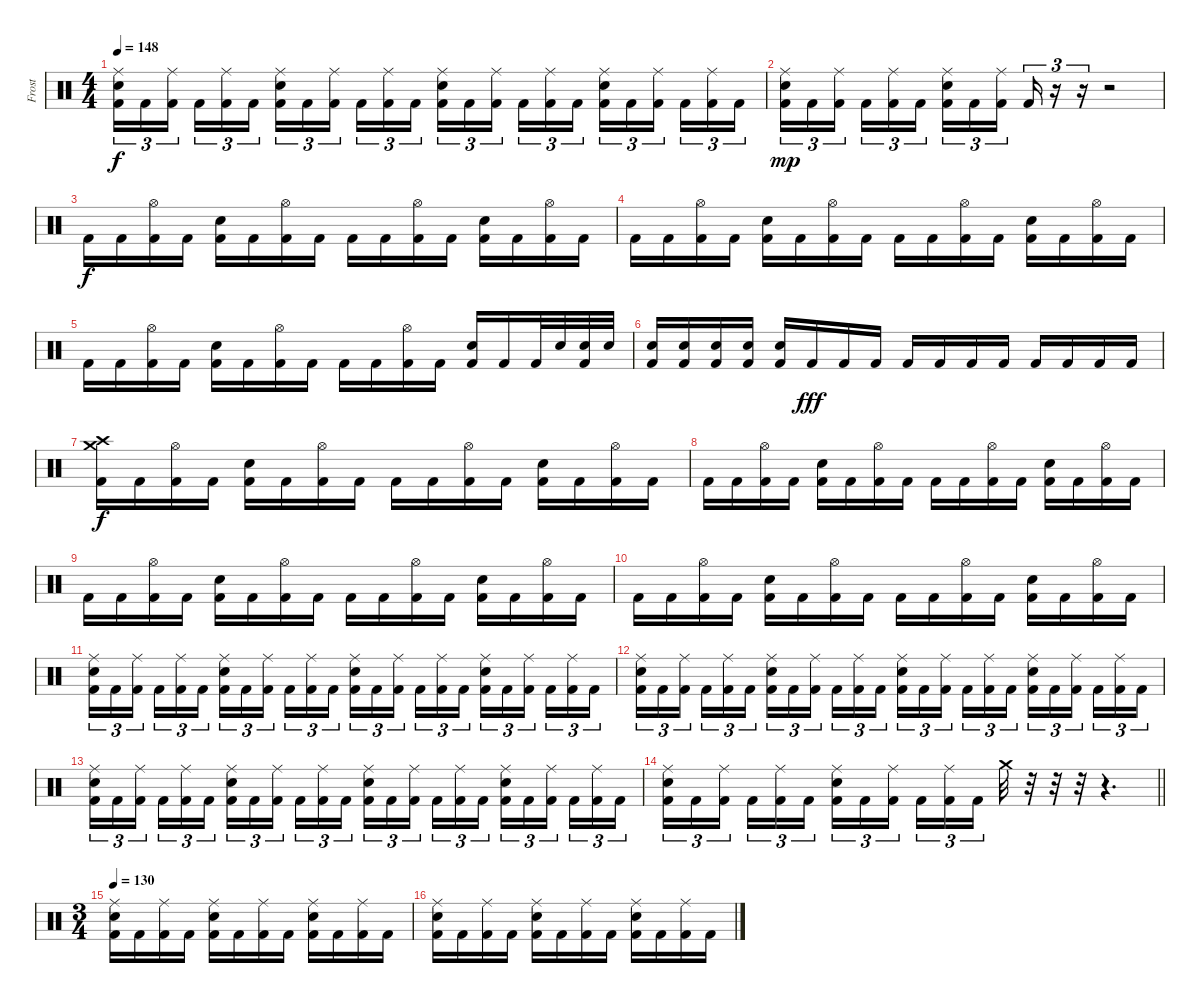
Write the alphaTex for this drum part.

\track ("Frost" "Frost") {instrument percussion}
\staff {score}
\articulation defaults
\ts (4 4)
\tempo 148
\clef neutral
\ks c
("Kick (hit) 2" "Ride (middle)" "Snare (hit) 2").16{tu (3 2) dy f} "Kick (hit) 2".16{tu (3 2)} ("Kick (hit) 2" "Ride (middle)").16{tu (3 2)} "Kick (hit) 2".16{tu (3 2)} ("Kick (hit) 2" "Ride (middle)").16{tu (3 2)} "Kick (hit) 2".16{tu (3 2)} ("Kick (hit) 2" "Ride (middle)" "Snare (hit) 2").16{tu (3 2)} "Kick (hit) 2".16{tu (3 2)} ("Kick (hit) 2" "Ride (middle)").16{tu (3 2)} "Kick (hit) 2".16{tu (3 2)} ("Kick (hit) 2" "Ride (middle)").16{tu (3 2)} "Kick (hit) 2".16{tu (3 2)} ("Kick (hit) 2" "Ride (middle)" "Snare (hit) 2").16{tu (3 2)} "Kick (hit) 2".16{tu (3 2)} ("Kick (hit) 2" "Ride (middle)").16{tu (3 2)} "Kick (hit) 2".16{tu (3 2)} ("Kick (hit) 2" "Ride (middle)").16{tu (3 2)} "Kick (hit) 2".16{tu (3 2)} ("Kick (hit) 2" "Ride (middle)" "Snare (hit) 2").16{tu (3 2)} "Kick (hit) 2".16{tu (3 2)} ("Kick (hit) 2" "Ride (middle)").16{tu (3 2)} "Kick (hit) 2".16{tu (3 2)} ("Kick (hit) 2" "Ride (middle)").16{tu (3 2)} "Kick (hit) 2".16{tu (3 2)} |
("Kick (hit) 2" "Ride (middle)" "Snare (hit) 2").16{tu (3 2) dy mp} "Kick (hit) 2".16{tu (3 2)} ("Kick (hit) 2" "Ride (middle)").16{tu (3 2)} "Kick (hit) 2".16{tu (3 2)} ("Kick (hit) 2" "Ride (middle)").16{tu (3 2)} "Kick (hit) 2".16{tu (3 2)} ("Kick (hit) 2" "Ride (middle)" "Snare (hit) 2").16{tu (3 2)} "Kick (hit) 2".16{tu (3 2)} ("Kick (hit) 2" "Ride (middle)").16{tu (3 2)} "Kick (hit) 2".16{tu (3 2)} r.16{tu (3 2)} r.16{tu (3 2)} r.2 |
"Kick (hit) 2".16{dy f} "Kick (hit) 2".16 ("Kick (hit) 2" "Hi-Hat (open)").16 "Kick (hit) 2".16 ("Kick (hit) 2" "Snare (hit) 2").16 "Kick (hit) 2".16 ("Kick (hit) 2" "Hi-Hat (open)").16 "Kick (hit) 2".16 "Kick (hit) 2".16 "Kick (hit) 2".16 ("Kick (hit) 2" "Hi-Hat (open)").16 "Kick (hit) 2".16 ("Kick (hit) 2" "Snare (hit) 2").16 "Kick (hit) 2".16 ("Kick (hit) 2" "Hi-Hat (open)").16 "Kick (hit) 2".16 |
"Kick (hit) 2".16 "Kick (hit) 2".16 ("Kick (hit) 2" "Hi-Hat (open)").16 "Kick (hit) 2".16 ("Kick (hit) 2" "Snare (hit) 2").16 "Kick (hit) 2".16 ("Kick (hit) 2" "Hi-Hat (open)").16 "Kick (hit) 2".16 "Kick (hit) 2".16 "Kick (hit) 2".16 ("Kick (hit) 2" "Hi-Hat (open)").16 "Kick (hit) 2".16 ("Kick (hit) 2" "Snare (hit) 2").16 "Kick (hit) 2".16 ("Kick (hit) 2" "Hi-Hat (open)").16 "Kick (hit) 2".16 |
"Kick (hit) 2".16 "Kick (hit) 2".16 ("Kick (hit) 2" "Hi-Hat (open)").16 "Kick (hit) 2".16 ("Kick (hit) 2" "Snare (hit) 2").16 "Kick (hit) 2".16 ("Kick (hit) 2" "Hi-Hat (open)").16 "Kick (hit) 2".16 "Kick (hit) 2".16 "Kick (hit) 2".16 ("Kick (hit) 2" "Hi-Hat (open)").16 "Kick (hit) 2".16 ("Kick (hit) 2" "Snare (hit) 2").16 "Kick (hit) 2".16 "Kick (hit) 2".32 "Snare (hit) 2".32 ("Kick (hit) 2" "Snare (hit) 2").32 "Snare (hit) 2".32 |
("Kick (hit) 2" "Snare (hit) 2").16 ("Kick (hit) 2" "Snare (hit) 2").16 ("Kick (hit) 2" "Snare (hit) 2").16 ("Kick (hit) 2" "Snare (hit) 2").16 ("Kick (hit) 2" "Snare (hit) 2").16 "Kick (hit) 2".16{dy fff} "Kick (hit) 2".16 "Kick (hit) 2".16 "Kick (hit) 2".16 "Kick (hit) 2".16 "Kick (hit) 2".16 "Kick (hit) 2".16 "Kick (hit) 2".16 "Kick (hit) 2".16 "Kick (hit) 2".16 "Kick (hit) 2".16 |
("Kick (hit) 2" "Crash medium (hit)" "Crash high (hit)").16{dy f} "Kick (hit) 2".16 ("Kick (hit) 2" "Hi-Hat (open)").16 "Kick (hit) 2".16 ("Kick (hit) 2" "Snare (hit) 2").16 "Kick (hit) 2".16 ("Kick (hit) 2" "Hi-Hat (open)").16 "Kick (hit) 2".16 "Kick (hit) 2".16 "Kick (hit) 2".16 ("Kick (hit) 2" "Hi-Hat (open)").16 "Kick (hit) 2".16 ("Kick (hit) 2" "Snare (hit) 2").16 "Kick (hit) 2".16 ("Kick (hit) 2" "Hi-Hat (open)").16 "Kick (hit) 2".16 |
"Kick (hit) 2".16 "Kick (hit) 2".16 ("Kick (hit) 2" "Hi-Hat (open)").16 "Kick (hit) 2".16 ("Kick (hit) 2" "Snare (hit) 2").16 "Kick (hit) 2".16 ("Kick (hit) 2" "Hi-Hat (open)").16 "Kick (hit) 2".16 "Kick (hit) 2".16 "Kick (hit) 2".16 ("Kick (hit) 2" "Hi-Hat (open)").16 "Kick (hit) 2".16 ("Kick (hit) 2" "Snare (hit) 2").16 "Kick (hit) 2".16 ("Kick (hit) 2" "Hi-Hat (open)").16 "Kick (hit) 2".16 |
"Kick (hit) 2".16 "Kick (hit) 2".16 ("Kick (hit) 2" "Hi-Hat (open)").16 "Kick (hit) 2".16 ("Kick (hit) 2" "Snare (hit) 2").16 "Kick (hit) 2".16 ("Kick (hit) 2" "Hi-Hat (open)").16 "Kick (hit) 2".16 "Kick (hit) 2".16 "Kick (hit) 2".16 ("Kick (hit) 2" "Hi-Hat (open)").16 "Kick (hit) 2".16 ("Kick (hit) 2" "Snare (hit) 2").16 "Kick (hit) 2".16 ("Kick (hit) 2" "Hi-Hat (open)").16 "Kick (hit) 2".16 |
"Kick (hit) 2".16 "Kick (hit) 2".16 ("Kick (hit) 2" "Hi-Hat (open)").16 "Kick (hit) 2".16 ("Kick (hit) 2" "Snare (hit) 2").16 "Kick (hit) 2".16 ("Kick (hit) 2" "Hi-Hat (open)").16 "Kick (hit) 2".16 "Kick (hit) 2".16 "Kick (hit) 2".16 ("Kick (hit) 2" "Hi-Hat (open)").16 "Kick (hit) 2".16 ("Kick (hit) 2" "Snare (hit) 2").16 "Kick (hit) 2".16 ("Kick (hit) 2" "Hi-Hat (open)").16 "Kick (hit) 2".16 |
("Kick (hit) 2" "Ride (middle)" "Snare (hit) 2").16{tu (3 2)} "Kick (hit) 2".16{tu (3 2)} ("Kick (hit) 2" "Ride (middle)").16{tu (3 2)} "Kick (hit) 2".16{tu (3 2)} ("Kick (hit) 2" "Ride (middle)").16{tu (3 2)} "Kick (hit) 2".16{tu (3 2)} ("Kick (hit) 2" "Ride (middle)" "Snare (hit) 2").16{tu (3 2)} "Kick (hit) 2".16{tu (3 2)} ("Kick (hit) 2" "Ride (middle)").16{tu (3 2)} "Kick (hit) 2".16{tu (3 2)} ("Kick (hit) 2" "Ride (middle)").16{tu (3 2)} "Kick (hit) 2".16{tu (3 2)} ("Kick (hit) 2" "Ride (middle)" "Snare (hit) 2").16{tu (3 2)} "Kick (hit) 2".16{tu (3 2)} ("Kick (hit) 2" "Ride (middle)").16{tu (3 2)} "Kick (hit) 2".16{tu (3 2)} ("Kick (hit) 2" "Ride (middle)").16{tu (3 2)} "Kick (hit) 2".16{tu (3 2)} ("Kick (hit) 2" "Ride (middle)" "Snare (hit) 2").16{tu (3 2)} "Kick (hit) 2".16{tu (3 2)} ("Kick (hit) 2" "Ride (middle)").16{tu (3 2)} "Kick (hit) 2".16{tu (3 2)} ("Kick (hit) 2" "Ride (middle)").16{tu (3 2)} "Kick (hit) 2".16{tu (3 2)} |
("Kick (hit) 2" "Ride (middle)" "Snare (hit) 2").16{tu (3 2)} "Kick (hit) 2".16{tu (3 2)} ("Kick (hit) 2" "Ride (middle)").16{tu (3 2)} "Kick (hit) 2".16{tu (3 2)} ("Kick (hit) 2" "Ride (middle)").16{tu (3 2)} "Kick (hit) 2".16{tu (3 2)} ("Kick (hit) 2" "Ride (middle)" "Snare (hit) 2").16{tu (3 2)} "Kick (hit) 2".16{tu (3 2)} ("Kick (hit) 2" "Ride (middle)").16{tu (3 2)} "Kick (hit) 2".16{tu (3 2)} ("Kick (hit) 2" "Ride (middle)").16{tu (3 2)} "Kick (hit) 2".16{tu (3 2)} ("Kick (hit) 2" "Ride (middle)" "Snare (hit) 2").16{tu (3 2)} "Kick (hit) 2".16{tu (3 2)} ("Kick (hit) 2" "Ride (middle)").16{tu (3 2)} "Kick (hit) 2".16{tu (3 2)} ("Kick (hit) 2" "Ride (middle)").16{tu (3 2)} "Kick (hit) 2".16{tu (3 2)} ("Kick (hit) 2" "Ride (middle)" "Snare (hit) 2").16{tu (3 2)} "Kick (hit) 2".16{tu (3 2)} ("Kick (hit) 2" "Ride (middle)").16{tu (3 2)} "Kick (hit) 2".16{tu (3 2)} ("Kick (hit) 2" "Ride (middle)").16{tu (3 2)} "Kick (hit) 2".16{tu (3 2)} |
("Kick (hit) 2" "Ride (middle)" "Snare (hit) 2").16{tu (3 2)} "Kick (hit) 2".16{tu (3 2)} ("Kick (hit) 2" "Ride (middle)").16{tu (3 2)} "Kick (hit) 2".16{tu (3 2)} ("Kick (hit) 2" "Ride (middle)").16{tu (3 2)} "Kick (hit) 2".16{tu (3 2)} ("Kick (hit) 2" "Ride (middle)" "Snare (hit) 2").16{tu (3 2)} "Kick (hit) 2".16{tu (3 2)} ("Kick (hit) 2" "Ride (middle)").16{tu (3 2)} "Kick (hit) 2".16{tu (3 2)} ("Kick (hit) 2" "Ride (middle)").16{tu (3 2)} "Kick (hit) 2".16{tu (3 2)} ("Kick (hit) 2" "Ride (middle)" "Snare (hit) 2").16{tu (3 2)} "Kick (hit) 2".16{tu (3 2)} ("Kick (hit) 2" "Ride (middle)").16{tu (3 2)} "Kick (hit) 2".16{tu (3 2)} ("Kick (hit) 2" "Ride (middle)").16{tu (3 2)} "Kick (hit) 2".16{tu (3 2)} ("Kick (hit) 2" "Ride (middle)" "Snare (hit) 2").16{tu (3 2)} "Kick (hit) 2".16{tu (3 2)} ("Kick (hit) 2" "Ride (middle)").16{tu (3 2)} "Kick (hit) 2".16{tu (3 2)} ("Kick (hit) 2" "Ride (middle)").16{tu (3 2)} "Kick (hit) 2".16{tu (3 2)} |
\barLineRight lightlight
("Kick (hit) 2" "Ride (middle)" "Snare (hit) 2").16{tu (3 2)} "Kick (hit) 2".16{tu (3 2)} ("Kick (hit) 2" "Ride (middle)").16{tu (3 2)} "Kick (hit) 2".16{tu (3 2)} ("Kick (hit) 2" "Ride (middle)").16{tu (3 2)} "Kick (hit) 2".16{tu (3 2)} ("Kick (hit) 2" "Ride (middle)" "Snare (hit) 2").16{tu (3 2)} "Kick (hit) 2".16{tu (3 2)} ("Kick (hit) 2" "Ride (middle)").16{tu (3 2)} "Kick (hit) 2".16{tu (3 2)} ("Kick (hit) 2" "Ride (middle)").16{tu (3 2)} "Kick (hit) 2".16{tu (3 2)} "Crash medium (hit)".32 r.32 r.32 r.32 r.4{d} |
\ts (3 4)
\tempo 130
("Kick (hit) 2" "Ride (middle)" "Snare (hit) 2").16 "Kick (hit) 2".16 ("Kick (hit) 2" "Ride (middle)").16 "Kick (hit) 2".16 ("Kick (hit) 2" "Ride (middle)" "Snare (hit) 2").16 "Kick (hit) 2".16 ("Kick (hit) 2" "Ride (middle)").16 "Kick (hit) 2".16 ("Kick (hit) 2" "Ride (middle)" "Snare (hit) 2").16 "Kick (hit) 2".16 ("Kick (hit) 2" "Ride (middle)").16 "Kick (hit) 2".16 |
("Kick (hit) 2" "Ride (middle)" "Snare (hit) 2").16 "Kick (hit) 2".16 ("Kick (hit) 2" "Ride (middle)").16 "Kick (hit) 2".16 ("Kick (hit) 2" "Ride (middle)" "Snare (hit) 2").16 "Kick (hit) 2".16 ("Kick (hit) 2" "Ride (middle)").16 "Kick (hit) 2".16 ("Kick (hit) 2" "Ride (middle)" "Snare (hit) 2").16 "Kick (hit) 2".16 ("Kick (hit) 2" "Ride (middle)").16 "Kick (hit) 2".16
